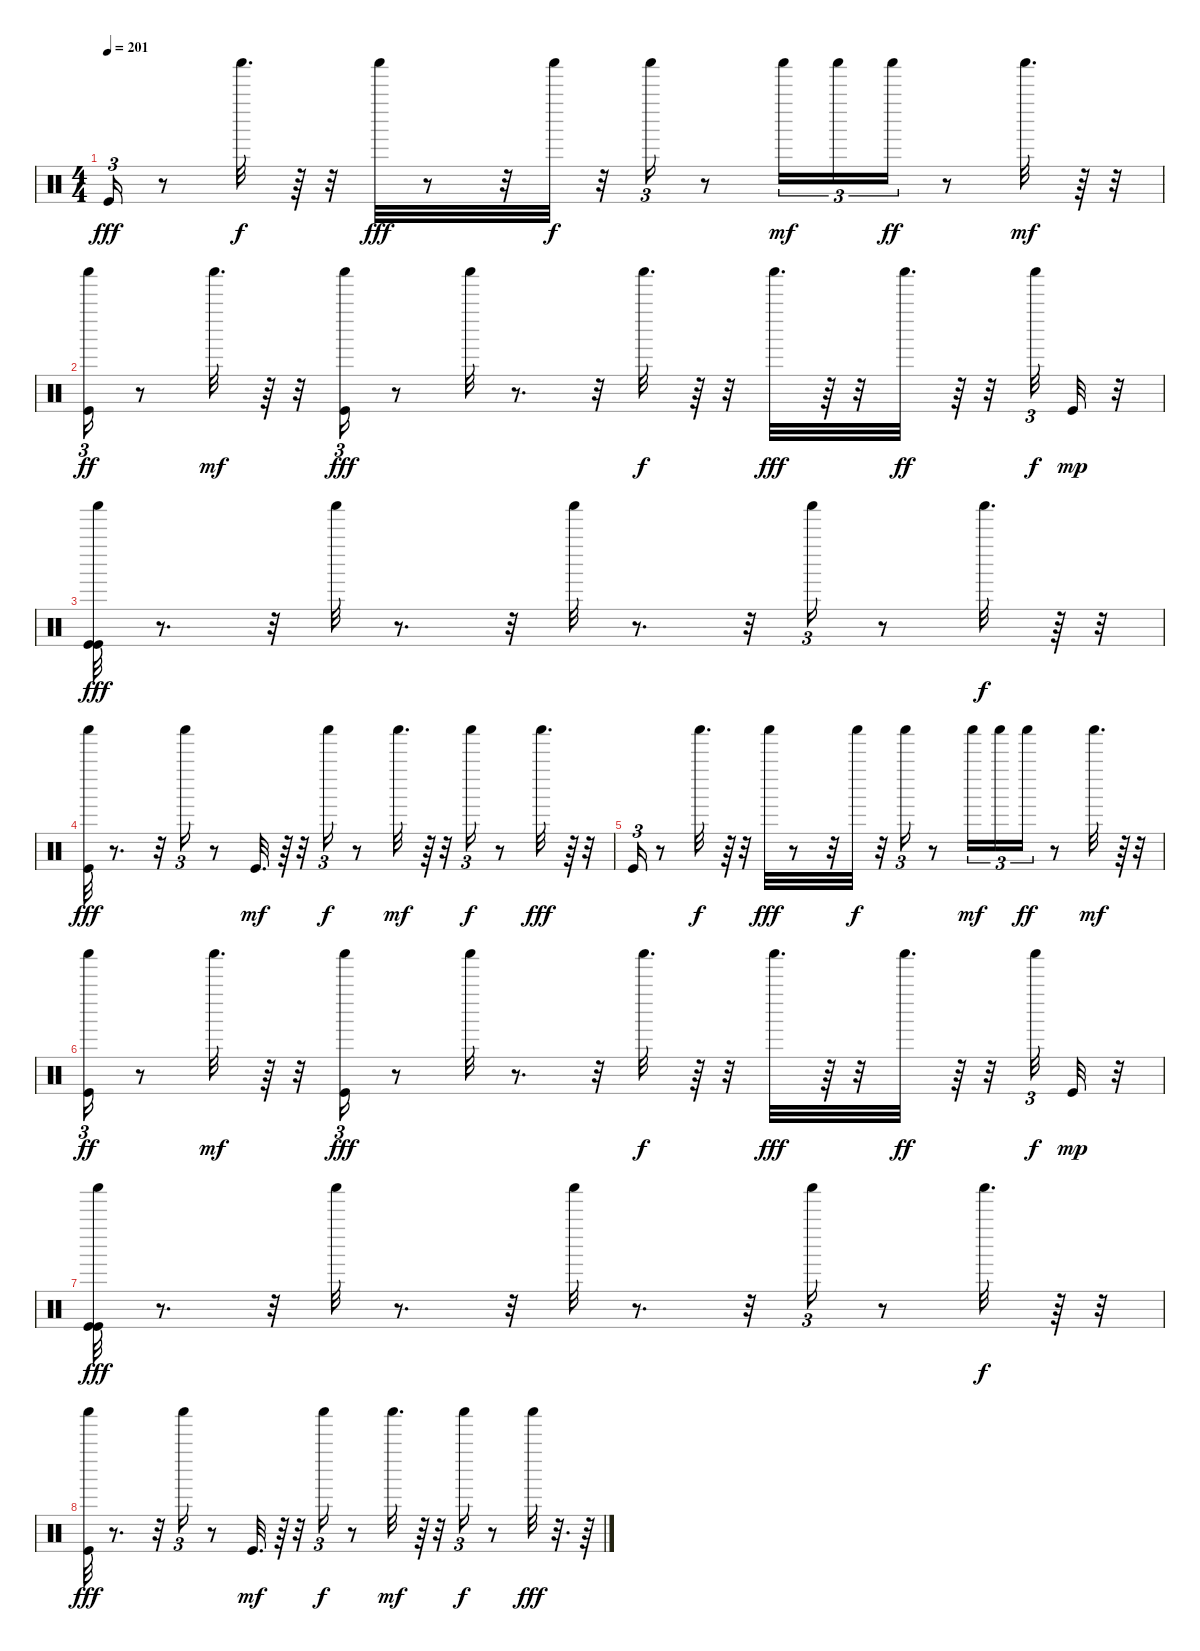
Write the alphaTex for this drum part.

\track "" {instrument percussion}
\staff {score}
\articulation defaults
\ts (4 4)
\tempo 201
\clef neutral
\ks c "Kick (hit)".16{tu (3 2) dy fff}
r.8 "Shaker (hit)".32{d dy f} r.64 r.32 "Shaker (hit)".32{dy fff} r.8 r.32 "Shaker (hit)".32{dy f} r.32 "Shaker (hit)".16{tu (3 2)} r.8 "Shaker (hit)".16{tu (3 2) dy mf} "Shaker (hit)".16{tu (3 2)} "Shaker (hit)".16{tu (3 2) dy ff} r.8 "Shaker (hit)".32{d dy mf} r.64 r.32 |
("Shaker (hit)" "Kick (hit)").16{tu (3 2) dy ff} r.8 "Shaker (hit)".32{d dy mf} r.64 r.32 ("Shaker (hit)" "Kick (hit)").16{tu (3 2) dy fff} r.8 "Shaker (hit)".32 r.8{d} r.32 "Shaker (hit)".32{d dy f} r.64 r.32 "Shaker (hit)".32{d dy fff} r.64 r.32 "Shaker (hit)".32{d dy ff} r.64 r.32 "Shaker (hit)".32{tu (3 2) dy f} "Kick (hit)".32{dy mp} r.32 |
("Shaker (hit)" "Kick (hit)" "Kick (hit)").32{dy fff} r.8{d} r.32 "Shaker (hit)".32 r.8{d} r.32 "Shaker (hit)".32 r.8{d} r.32 "Shaker (hit)".16{tu (3 2)} r.8 "Shaker (hit)".32{d dy f} r.64 r.32 |
("Shaker (hit)" "Kick (hit)").32{dy fff} r.8{d} r.32 "Shaker (hit)".16{tu (3 2)} r.8 "Kick (hit)".32{d dy mf} r.64 r.32 "Shaker (hit)".16{tu (3 2) dy f} r.8 "Shaker (hit)".32{d dy mf} r.64 r.32 "Shaker (hit)".16{tu (3 2) dy f} r.8 "Shaker (hit)".32{d dy fff} r.64 r.32 |
"Kick (hit)".16{tu (3 2)} r.8 "Shaker (hit)".32{d dy f} r.64 r.32 "Shaker (hit)".32{dy fff} r.8 r.32 "Shaker (hit)".32{dy f} r.32 "Shaker (hit)".16{tu (3 2)} r.8 "Shaker (hit)".16{tu (3 2) dy mf} "Shaker (hit)".16{tu (3 2)} "Shaker (hit)".16{tu (3 2) dy ff} r.8 "Shaker (hit)".32{d dy mf} r.64 r.32 |
("Shaker (hit)" "Kick (hit)").16{tu (3 2) dy ff} r.8 "Shaker (hit)".32{d dy mf} r.64 r.32 ("Shaker (hit)" "Kick (hit)").16{tu (3 2) dy fff} r.8 "Shaker (hit)".32 r.8{d} r.32 "Shaker (hit)".32{d dy f} r.64 r.32 "Shaker (hit)".32{d dy fff} r.64 r.32 "Shaker (hit)".32{d dy ff} r.64 r.32 "Shaker (hit)".32{tu (3 2) dy f} "Kick (hit)".32{dy mp} r.32 |
("Shaker (hit)" "Kick (hit)" "Kick (hit)").32{dy fff} r.8{d} r.32 "Shaker (hit)".32 r.8{d} r.32 "Shaker (hit)".32 r.8{d} r.32 "Shaker (hit)".16{tu (3 2)} r.8 "Shaker (hit)".32{d dy f} r.64 r.32 |
("Shaker (hit)" "Kick (hit)").32{dy fff} r.8{d} r.32 "Shaker (hit)".16{tu (3 2)} r.8 "Kick (hit)".32{d dy mf} r.64 r.32 "Shaker (hit)".16{tu (3 2) dy f} r.8 "Shaker (hit)".32{d dy mf} r.64 r.32 "Shaker (hit)".16{tu (3 2) dy f} r.8 "Shaker (hit)".32{dy fff} r.32{d} r.64
